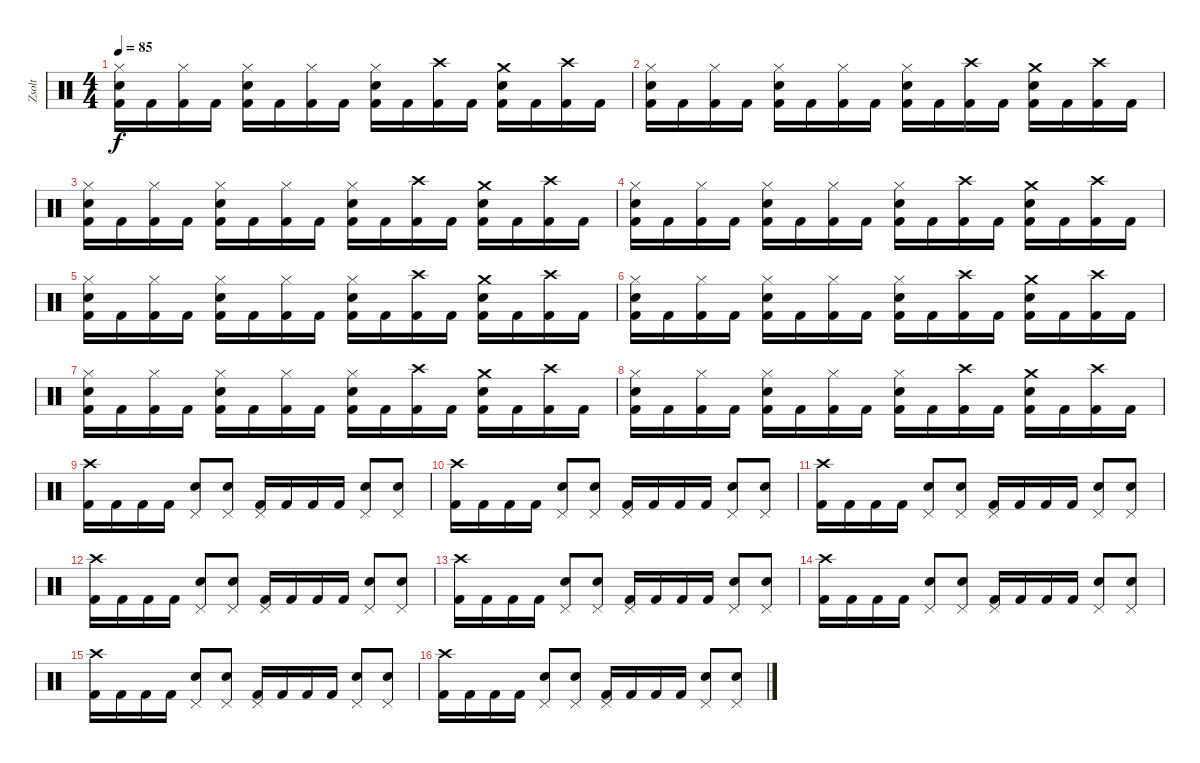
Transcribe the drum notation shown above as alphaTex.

\track ("Zsolt" "Zsolt") {instrument percussion}
\staff {score}
\articulation defaults
\ts (4 4)
\tempo 85
\clef neutral
\ks c
("Hi-Hat (closed)" "Electric Snare (hit)" "Kick (hit) 2").16{dy f} "Kick (hit) 2".16 ("Hi-Hat (closed)" "Kick (hit) 2").16 "Kick (hit) 2".16 ("Hi-Hat (closed)" "Electric Snare (hit)" "Kick (hit) 2").16 "Kick (hit) 2".16 ("Hi-Hat (closed)" "Kick (hit) 2").16 "Kick (hit) 2".16 ("Hi-Hat (closed)" "Electric Snare (hit)" "Kick (hit) 2").16 "Kick (hit) 2".16 ("Crash high (hit)" "Kick (hit) 2").16 "Kick (hit) 2".16 ("Crash medium (hit)" "Electric Snare (hit)" "Kick (hit) 2").16 "Kick (hit) 2".16 ("Crash high (hit)" "Kick (hit) 2").16 "Kick (hit) 2".16 |
("Hi-Hat (closed)" "Electric Snare (hit)" "Kick (hit) 2").16 "Kick (hit) 2".16 ("Hi-Hat (closed)" "Kick (hit) 2").16 "Kick (hit) 2".16 ("Hi-Hat (closed)" "Electric Snare (hit)" "Kick (hit) 2").16 "Kick (hit) 2".16 ("Hi-Hat (closed)" "Kick (hit) 2").16 "Kick (hit) 2".16 ("Hi-Hat (closed)" "Electric Snare (hit)" "Kick (hit) 2").16 "Kick (hit) 2".16 ("Crash high (hit)" "Kick (hit) 2").16 "Kick (hit) 2".16 ("Crash medium (hit)" "Electric Snare (hit)" "Kick (hit) 2").16 "Kick (hit) 2".16 ("Crash high (hit)" "Kick (hit) 2").16 "Kick (hit) 2".16 |
("Hi-Hat (closed)" "Electric Snare (hit)" "Kick (hit) 2").16 "Kick (hit) 2".16 ("Hi-Hat (closed)" "Kick (hit) 2").16 "Kick (hit) 2".16 ("Hi-Hat (closed)" "Electric Snare (hit)" "Kick (hit) 2").16 "Kick (hit) 2".16 ("Hi-Hat (closed)" "Kick (hit) 2").16 "Kick (hit) 2".16 ("Hi-Hat (closed)" "Electric Snare (hit)" "Kick (hit) 2").16 "Kick (hit) 2".16 ("Crash high (hit)" "Kick (hit) 2").16 "Kick (hit) 2".16 ("Crash medium (hit)" "Electric Snare (hit)" "Kick (hit) 2").16 "Kick (hit) 2".16 ("Crash high (hit)" "Kick (hit) 2").16 "Kick (hit) 2".16 |
("Hi-Hat (closed)" "Electric Snare (hit)" "Kick (hit) 2").16 "Kick (hit) 2".16 ("Hi-Hat (closed)" "Kick (hit) 2").16 "Kick (hit) 2".16 ("Hi-Hat (closed)" "Electric Snare (hit)" "Kick (hit) 2").16 "Kick (hit) 2".16 ("Hi-Hat (closed)" "Kick (hit) 2").16 "Kick (hit) 2".16 ("Hi-Hat (closed)" "Electric Snare (hit)" "Kick (hit) 2").16 "Kick (hit) 2".16 ("Crash high (hit)" "Kick (hit) 2").16 "Kick (hit) 2".16 ("Crash medium (hit)" "Electric Snare (hit)" "Kick (hit) 2").16 "Kick (hit) 2".16 ("Crash high (hit)" "Kick (hit) 2").16 "Kick (hit) 2".16 |
("Hi-Hat (closed)" "Electric Snare (hit)" "Kick (hit) 2").16 "Kick (hit) 2".16 ("Hi-Hat (closed)" "Kick (hit) 2").16 "Kick (hit) 2".16 ("Hi-Hat (closed)" "Electric Snare (hit)" "Kick (hit) 2").16 "Kick (hit) 2".16 ("Hi-Hat (closed)" "Kick (hit) 2").16 "Kick (hit) 2".16 ("Hi-Hat (closed)" "Electric Snare (hit)" "Kick (hit) 2").16 "Kick (hit) 2".16 ("Crash high (hit)" "Kick (hit) 2").16 "Kick (hit) 2".16 ("Crash medium (hit)" "Electric Snare (hit)" "Kick (hit) 2").16 "Kick (hit) 2".16 ("Crash high (hit)" "Kick (hit) 2").16 "Kick (hit) 2".16 |
("Hi-Hat (closed)" "Electric Snare (hit)" "Kick (hit) 2").16 "Kick (hit) 2".16 ("Hi-Hat (closed)" "Kick (hit) 2").16 "Kick (hit) 2".16 ("Hi-Hat (closed)" "Electric Snare (hit)" "Kick (hit) 2").16 "Kick (hit) 2".16 ("Hi-Hat (closed)" "Kick (hit) 2").16 "Kick (hit) 2".16 ("Hi-Hat (closed)" "Electric Snare (hit)" "Kick (hit) 2").16 "Kick (hit) 2".16 ("Crash high (hit)" "Kick (hit) 2").16 "Kick (hit) 2".16 ("Crash medium (hit)" "Electric Snare (hit)" "Kick (hit) 2").16 "Kick (hit) 2".16 ("Crash high (hit)" "Kick (hit) 2").16 "Kick (hit) 2".16 |
("Hi-Hat (closed)" "Electric Snare (hit)" "Kick (hit) 2").16 "Kick (hit) 2".16 ("Hi-Hat (closed)" "Kick (hit) 2").16 "Kick (hit) 2".16 ("Hi-Hat (closed)" "Electric Snare (hit)" "Kick (hit) 2").16 "Kick (hit) 2".16 ("Hi-Hat (closed)" "Kick (hit) 2").16 "Kick (hit) 2".16 ("Hi-Hat (closed)" "Electric Snare (hit)" "Kick (hit) 2").16 "Kick (hit) 2".16 ("Crash high (hit)" "Kick (hit) 2").16 "Kick (hit) 2".16 ("Crash medium (hit)" "Electric Snare (hit)" "Kick (hit) 2").16 "Kick (hit) 2".16 ("Crash high (hit)" "Kick (hit) 2").16 "Kick (hit) 2".16 |
("Hi-Hat (closed)" "Electric Snare (hit)" "Kick (hit) 2").16 "Kick (hit) 2".16 ("Hi-Hat (closed)" "Kick (hit) 2").16 "Kick (hit) 2".16 ("Hi-Hat (closed)" "Electric Snare (hit)" "Kick (hit) 2").16 "Kick (hit) 2".16 ("Hi-Hat (closed)" "Kick (hit) 2").16 "Kick (hit) 2".16 ("Hi-Hat (closed)" "Electric Snare (hit)" "Kick (hit) 2").16 "Kick (hit) 2".16 ("Crash high (hit)" "Kick (hit) 2").16 "Kick (hit) 2".16 ("Crash medium (hit)" "Electric Snare (hit)" "Kick (hit) 2").16 "Kick (hit) 2".16 ("Crash high (hit)" "Kick (hit) 2").16 "Kick (hit) 2".16 |
("Crash high (hit)" "Kick (hit) 2").16 "Kick (hit) 2".16 "Kick (hit) 2".16 "Kick (hit) 2".16 ("Pedal Hi-Hat (hit)" "Electric Snare (hit)").8 ("Pedal Hi-Hat (hit)" "Electric Snare (hit)").8 ("Pedal Hi-Hat (hit)" "Kick (hit) 2").16 "Kick (hit) 2".16 "Kick (hit) 2".16 "Kick (hit) 2".16 ("Pedal Hi-Hat (hit)" "Electric Snare (hit)").8 ("Pedal Hi-Hat (hit)" "Electric Snare (hit)").8 |
("Crash high (hit)" "Kick (hit) 2").16 "Kick (hit) 2".16 "Kick (hit) 2".16 "Kick (hit) 2".16 ("Pedal Hi-Hat (hit)" "Electric Snare (hit)").8 ("Pedal Hi-Hat (hit)" "Electric Snare (hit)").8 ("Pedal Hi-Hat (hit)" "Kick (hit) 2").16 "Kick (hit) 2".16 "Kick (hit) 2".16 "Kick (hit) 2".16 ("Pedal Hi-Hat (hit)" "Electric Snare (hit)").8 ("Pedal Hi-Hat (hit)" "Electric Snare (hit)").8 |
("Crash high (hit)" "Kick (hit) 2").16 "Kick (hit) 2".16 "Kick (hit) 2".16 "Kick (hit) 2".16 ("Pedal Hi-Hat (hit)" "Electric Snare (hit)").8 ("Pedal Hi-Hat (hit)" "Electric Snare (hit)").8 ("Pedal Hi-Hat (hit)" "Kick (hit) 2").16 "Kick (hit) 2".16 "Kick (hit) 2".16 "Kick (hit) 2".16 ("Pedal Hi-Hat (hit)" "Electric Snare (hit)").8 ("Pedal Hi-Hat (hit)" "Electric Snare (hit)").8 |
("Crash high (hit)" "Kick (hit) 2").16 "Kick (hit) 2".16 "Kick (hit) 2".16 "Kick (hit) 2".16 ("Pedal Hi-Hat (hit)" "Electric Snare (hit)").8 ("Pedal Hi-Hat (hit)" "Electric Snare (hit)").8 ("Pedal Hi-Hat (hit)" "Kick (hit) 2").16 "Kick (hit) 2".16 "Kick (hit) 2".16 "Kick (hit) 2".16 ("Pedal Hi-Hat (hit)" "Electric Snare (hit)").8 ("Pedal Hi-Hat (hit)" "Electric Snare (hit)").8 |
("Crash high (hit)" "Kick (hit) 2").16 "Kick (hit) 2".16 "Kick (hit) 2".16 "Kick (hit) 2".16 ("Pedal Hi-Hat (hit)" "Electric Snare (hit)").8 ("Pedal Hi-Hat (hit)" "Electric Snare (hit)").8 ("Pedal Hi-Hat (hit)" "Kick (hit) 2").16 "Kick (hit) 2".16 "Kick (hit) 2".16 "Kick (hit) 2".16 ("Pedal Hi-Hat (hit)" "Electric Snare (hit)").8 ("Pedal Hi-Hat (hit)" "Electric Snare (hit)").8 |
("Crash high (hit)" "Kick (hit) 2").16 "Kick (hit) 2".16 "Kick (hit) 2".16 "Kick (hit) 2".16 ("Pedal Hi-Hat (hit)" "Electric Snare (hit)").8 ("Pedal Hi-Hat (hit)" "Electric Snare (hit)").8 ("Pedal Hi-Hat (hit)" "Kick (hit) 2").16 "Kick (hit) 2".16 "Kick (hit) 2".16 "Kick (hit) 2".16 ("Pedal Hi-Hat (hit)" "Electric Snare (hit)").8 ("Pedal Hi-Hat (hit)" "Electric Snare (hit)").8 |
("Crash high (hit)" "Kick (hit) 2").16 "Kick (hit) 2".16 "Kick (hit) 2".16 "Kick (hit) 2".16 ("Pedal Hi-Hat (hit)" "Electric Snare (hit)").8 ("Pedal Hi-Hat (hit)" "Electric Snare (hit)").8 ("Pedal Hi-Hat (hit)" "Kick (hit) 2").16 "Kick (hit) 2".16 "Kick (hit) 2".16 "Kick (hit) 2".16 ("Pedal Hi-Hat (hit)" "Electric Snare (hit)").8 ("Pedal Hi-Hat (hit)" "Electric Snare (hit)").8 |
("Crash high (hit)" "Kick (hit) 2").16 "Kick (hit) 2".16 "Kick (hit) 2".16 "Kick (hit) 2".16 ("Pedal Hi-Hat (hit)" "Electric Snare (hit)").8 ("Pedal Hi-Hat (hit)" "Electric Snare (hit)").8 ("Pedal Hi-Hat (hit)" "Kick (hit) 2").16 "Kick (hit) 2".16 "Kick (hit) 2".16 "Kick (hit) 2".16 ("Pedal Hi-Hat (hit)" "Electric Snare (hit)").8 ("Pedal Hi-Hat (hit)" "Electric Snare (hit)").8
